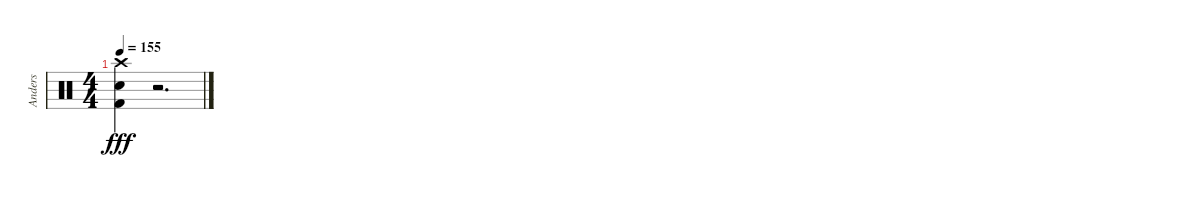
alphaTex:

\track ("Anders" "Anders") {instrument percussion}
\staff {score}
\articulation defaults
\ts (4 4)
\tempo 155
\clef neutral
\ks c
("Crash high (hit)" "Snare (hit) 2" "Kick (hit) 2").4{dy fff} r.2{d}
